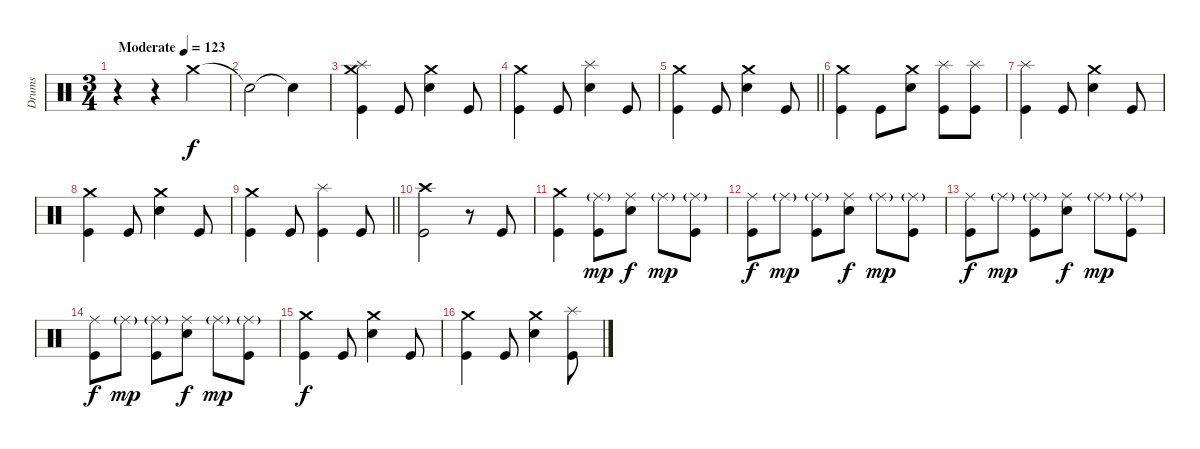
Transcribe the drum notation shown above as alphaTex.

\track ("Drums" "Drums") {instrument percussion}
\staff {score}
\articulation defaults
\ts (3 4)
\tempo (123 "Moderate")
\clef neutral
\ks c
r.4{dy f} r.4{volume 0} "Crash medium (hit)".4{volume 16} |
"Snare (hit)"{t}.2 "Snare (hit)"{t}.4 |
("Crash medium (hit)" "Splash (hit)" "Kick (hit)").4{volume 11} "Kick (hit)".8 ("Crash medium (hit)" "Snare (hit) 2").4 "Kick (hit)".8 |
("Crash medium (hit)" "Kick (hit)").4 "Kick (hit)".8 ("Splash (hit)" "Snare (hit) 2").4 "Kick (hit)".8 |
\barLineRight lightlight
("Crash medium (hit)" "Kick (hit)").4 "Kick (hit)".8 ("Crash medium (hit)" "Snare (hit) 2").4 "Kick (hit)".8 |
\section ("" "")
("Crash medium (hit)" "Kick (hit)").4 "Kick (hit)".8 ("Crash medium (hit)" "Snare (hit) 2").8 ("Splash (hit)" "Kick (hit)").8 ("Splash (hit)" "Kick (hit)").8 |
("Splash (hit)" "Kick (hit)").4 "Kick (hit)".8 ("Crash medium (hit)" "Snare (hit) 2").4 "Kick (hit)".8 |
("Crash medium (hit)" "Kick (hit)").4 "Kick (hit)".8 ("Crash medium (hit)" "Snare (hit) 2").4 "Kick (hit)".8 |
\barLineRight lightlight
("Crash medium (hit)" "Kick (hit)").4 "Kick (hit)".8 ("Splash (hit)" "Kick (hit)").4 "Kick (hit)".8 |
("Crash high (hit)" "Kick (hit)").2 r.8 "Kick (hit)".8 |
("Crash medium (hit)" "Kick (hit)").4 ("Ride (middle)"{g} "Kick (hit)").8{dy mp} ("Ride (middle)" "Snare (hit) 2").8{dy f} "Ride (middle)"{g}.8{dy mp} ("Ride (middle)"{g} "Kick (hit)").8 |
("Ride (middle)" "Kick (hit)").8{dy f} "Ride (middle)"{g}.8{dy mp} ("Ride (middle)"{g} "Kick (hit)").8 ("Ride (middle)" "Snare (hit) 2").8{dy f} "Ride (middle)"{g}.8{dy mp} ("Ride (middle)"{g} "Kick (hit)").8 |
("Ride (middle)" "Kick (hit)").8{dy f} "Ride (middle)"{g}.8{dy mp} ("Ride (middle)"{g} "Kick (hit)").8 ("Ride (middle)" "Snare (hit) 2").8{dy f} "Ride (middle)"{g}.8{dy mp} ("Ride (middle)"{g} "Kick (hit)").8 |
("Ride (middle)" "Kick (hit)").8{dy f} "Ride (middle)"{g}.8{dy mp} ("Ride (middle)"{g} "Kick (hit)").8 ("Ride (middle)" "Snare (hit) 2").8{dy f} "Ride (middle)"{g}.8{dy mp} ("Ride (middle)"{g} "Kick (hit)").8 |
("Crash medium (hit)" "Kick (hit)").4{dy f} "Kick (hit)".8 ("Crash medium (hit)" "Snare (hit) 2").4 "Kick (hit)".8 |
("Crash medium (hit)" "Kick (hit)").4 "Kick (hit)".8 ("Crash medium (hit)" "Snare (hit) 2").4 ("Splash (hit)" "Kick (hit)").8
